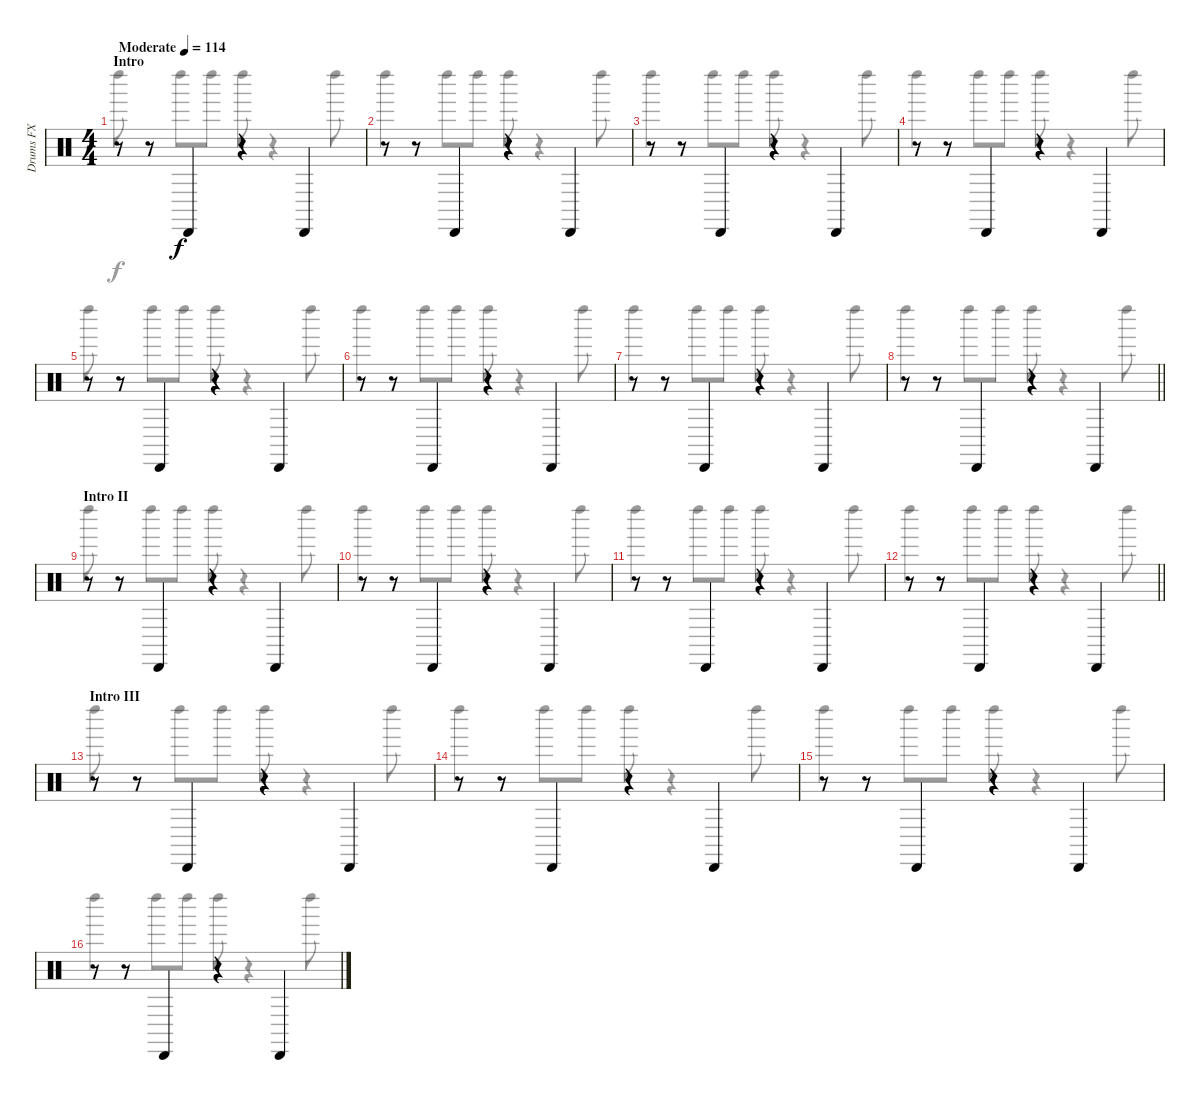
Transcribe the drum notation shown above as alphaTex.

\track ("Drums FX" "Drums FX") {instrument percussion}
\staff {score}
\articulation defaults
\voice
\ts (4 4)
\section ("" "Intro")
\tempo (114 "Moderate")
\clef neutral
\ks c
r.8{dy f} r.8 "Cabasa (hit)".4 r.4 "Cabasa (hit)".4 |
r.8 r.8 "Cabasa (hit)".4 r.4 "Cabasa (hit)".4 |
r.8 r.8 "Cabasa (hit)".4 r.4 "Cabasa (hit)".4 |
r.8 r.8 "Cabasa (hit)".4 r.4 "Cabasa (hit)".4 |
r.8 r.8 "Cabasa (hit)".4 r.4 "Cabasa (hit)".4 |
r.8 r.8 "Cabasa (hit)".4 r.4 "Cabasa (hit)".4 |
r.8 r.8 "Cabasa (hit)".4 r.4 "Cabasa (hit)".4 |
\barLineRight lightlight
r.8 r.8 "Cabasa (hit)".4 r.4 "Cabasa (hit)".4 |
\section ("" "Intro II")
r.8 r.8 "Cabasa (hit)".4 r.4 "Cabasa (hit)".4 |
r.8 r.8 "Cabasa (hit)".4 r.4 "Cabasa (hit)".4 |
r.8 r.8 "Cabasa (hit)".4 r.4 "Cabasa (hit)".4 |
\barLineRight lightlight
r.8 r.8 "Cabasa (hit)".4 r.4 "Cabasa (hit)".4 |
\section ("" "Intro III")
r.8 r.8 "Cabasa (hit)".4 r.4 "Cabasa (hit)".4 |
r.8 r.8 "Cabasa (hit)".4 r.4 "Cabasa (hit)".4 |
r.8 r.8 "Cabasa (hit)".4 r.4 "Cabasa (hit)".4 |
r.8 r.8 "Cabasa (hit)".4 r.4 "Cabasa (hit)".4
\voice
\clef neutral
\ottava regular
\simile none
\ks c "Left Maraca (hit)".8{dy f}
r.8 "Left Maraca (hit)".8 "Left Maraca (hit)".8 "Left Maraca (hit)".8 r.4 "Left Maraca (hit)".8 |
"Left Maraca (hit)".4 "Left Maraca (hit)".8 "Left Maraca (hit)".8 "Left Maraca (hit)".8 r.4 "Left Maraca (hit)".8 |
"Left Maraca (hit)".4 "Left Maraca (hit)".8 "Left Maraca (hit)".8 "Left Maraca (hit)".8 r.4 "Left Maraca (hit)".8 |
"Left Maraca (hit)".4 "Left Maraca (hit)".8 "Left Maraca (hit)".8 "Left Maraca (hit)".8 r.4 "Left Maraca (hit)".8 |
"Left Maraca (hit)".8 r.8 "Left Maraca (hit)".8 "Left Maraca (hit)".8 "Left Maraca (hit)".8 r.4 "Left Maraca (hit)".8 |
"Left Maraca (hit)".4 "Left Maraca (hit)".8 "Left Maraca (hit)".8 "Left Maraca (hit)".8 r.4 "Left Maraca (hit)".8 |
"Left Maraca (hit)".4 "Left Maraca (hit)".8 "Left Maraca (hit)".8 "Left Maraca (hit)".8 r.4 "Left Maraca (hit)".8 |
\barLineRight lightlight "Left Maraca (hit)".4 "Left Maraca (hit)".8 "Left Maraca (hit)".8 "Left Maraca (hit)".8
r.4 "Left Maraca (hit)".8 |
"Left Maraca (hit)".8 r.8 "Left Maraca (hit)".8 "Left Maraca (hit)".8 "Left Maraca (hit)".8 r.4 "Left Maraca (hit)".8 |
"Left Maraca (hit)".4 "Left Maraca (hit)".8 "Left Maraca (hit)".8 "Left Maraca (hit)".8 r.4 "Left Maraca (hit)".8 |
"Left Maraca (hit)".4 "Left Maraca (hit)".8 "Left Maraca (hit)".8 "Left Maraca (hit)".8 r.4 "Left Maraca (hit)".8 |
\barLineRight lightlight "Left Maraca (hit)".4 "Left Maraca (hit)".8 "Left Maraca (hit)".8 "Left Maraca (hit)".8
r.4 "Left Maraca (hit)".8 |
"Left Maraca (hit)".8 r.8 "Left Maraca (hit)".8 "Left Maraca (hit)".8 "Left Maraca (hit)".8 r.4 "Left Maraca (hit)".8 |
"Left Maraca (hit)".4 "Left Maraca (hit)".8 "Left Maraca (hit)".8 "Left Maraca (hit)".8 r.4 "Left Maraca (hit)".8 |
"Left Maraca (hit)".4 "Left Maraca (hit)".8 "Left Maraca (hit)".8 "Left Maraca (hit)".8 r.4 "Left Maraca (hit)".8 |
"Left Maraca (hit)".4 "Left Maraca (hit)".8 "Left Maraca (hit)".8 "Left Maraca (hit)".8 r.4 "Left Maraca (hit)".8
